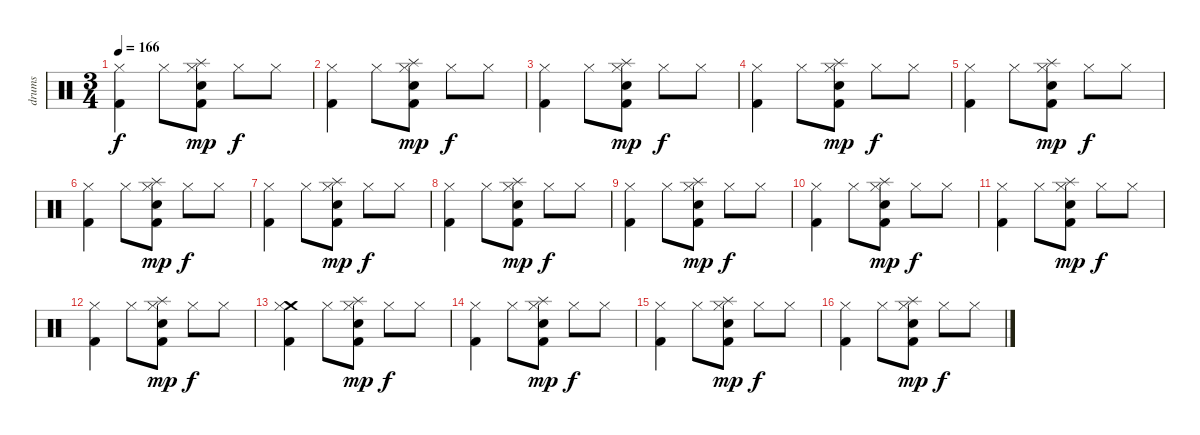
\track ("drums" "drums") {instrument percussion}
\staff {score}
\articulation defaults
\ts (3 4)
\tempo 166
\clef neutral
\ks c
("Hi-Hat (closed)" "Kick (hit) 2").4{dy f} "Hi-Hat (closed)".8 ("Splash (hit)" "Hi-Hat (closed)" "Electric Snare (hit)" "Kick (hit) 2").8{dy mp} "Hi-Hat (closed)".8{dy f} "Hi-Hat (closed)".8 |
("Hi-Hat (closed)" "Kick (hit) 2").4 "Hi-Hat (closed)".8 ("Splash (hit)" "Hi-Hat (closed)" "Electric Snare (hit)" "Kick (hit) 2").8{dy mp} "Hi-Hat (closed)".8{dy f} "Hi-Hat (closed)".8 |
("Hi-Hat (closed)" "Kick (hit) 2").4 "Hi-Hat (closed)".8 ("Splash (hit)" "Hi-Hat (closed)" "Electric Snare (hit)" "Kick (hit) 2").8{dy mp} "Hi-Hat (closed)".8{dy f} "Hi-Hat (closed)".8 |
("Hi-Hat (closed)" "Kick (hit) 2").4 "Hi-Hat (closed)".8 ("Splash (hit)" "Hi-Hat (closed)" "Electric Snare (hit)" "Kick (hit) 2").8{dy mp} "Hi-Hat (closed)".8{dy f} "Hi-Hat (closed)".8 |
("Hi-Hat (closed)" "Kick (hit) 2").4 "Hi-Hat (closed)".8 ("Splash (hit)" "Hi-Hat (closed)" "Electric Snare (hit)" "Kick (hit) 2").8{dy mp} "Hi-Hat (closed)".8{dy f} "Hi-Hat (closed)".8 |
("Hi-Hat (closed)" "Kick (hit) 2").4 "Hi-Hat (closed)".8 ("Splash (hit)" "Hi-Hat (closed)" "Electric Snare (hit)" "Kick (hit) 2").8{dy mp} "Hi-Hat (closed)".8{dy f} "Hi-Hat (closed)".8 |
("Hi-Hat (closed)" "Kick (hit) 2").4 "Hi-Hat (closed)".8 ("Splash (hit)" "Hi-Hat (closed)" "Electric Snare (hit)" "Kick (hit) 2").8{dy mp} "Hi-Hat (closed)".8{dy f} "Hi-Hat (closed)".8 |
("Hi-Hat (closed)" "Kick (hit) 2").4 "Hi-Hat (closed)".8 ("Splash (hit)" "Hi-Hat (closed)" "Electric Snare (hit)" "Kick (hit) 2").8{dy mp} "Hi-Hat (closed)".8{dy f} "Hi-Hat (closed)".8 |
("Hi-Hat (closed)" "Kick (hit) 2").4 "Hi-Hat (closed)".8 ("Splash (hit)" "Hi-Hat (closed)" "Electric Snare (hit)" "Kick (hit) 2").8{dy mp} "Hi-Hat (closed)".8{dy f} "Hi-Hat (closed)".8 |
("Hi-Hat (closed)" "Kick (hit) 2").4 "Hi-Hat (closed)".8 ("Splash (hit)" "Hi-Hat (closed)" "Electric Snare (hit)" "Kick (hit) 2").8{dy mp} "Hi-Hat (closed)".8{dy f} "Hi-Hat (closed)".8 |
("Hi-Hat (closed)" "Kick (hit) 2").4 "Hi-Hat (closed)".8 ("Splash (hit)" "Hi-Hat (closed)" "Electric Snare (hit)" "Kick (hit) 2").8{dy mp} "Hi-Hat (closed)".8{dy f} "Hi-Hat (closed)".8 |
("Hi-Hat (closed)" "Kick (hit) 2").4 "Hi-Hat (closed)".8 ("Splash (hit)" "Hi-Hat (closed)" "Electric Snare (hit)" "Kick (hit) 2").8{dy mp} "Hi-Hat (closed)".8{dy f} "Hi-Hat (closed)".8 |
("Crash medium (hit)" "Hi-Hat (closed)" "Kick (hit) 2").4 "Hi-Hat (closed)".8 ("Splash (hit)" "Hi-Hat (closed)" "Electric Snare (hit)" "Kick (hit) 2").8{dy mp} "Hi-Hat (closed)".8{dy f} "Hi-Hat (closed)".8 |
("Hi-Hat (closed)" "Kick (hit) 2").4 "Hi-Hat (closed)".8 ("Splash (hit)" "Hi-Hat (closed)" "Electric Snare (hit)" "Kick (hit) 2").8{dy mp} "Hi-Hat (closed)".8{dy f} "Hi-Hat (closed)".8 |
("Hi-Hat (closed)" "Kick (hit) 2").4 "Hi-Hat (closed)".8 ("Splash (hit)" "Hi-Hat (closed)" "Electric Snare (hit)" "Kick (hit) 2").8{dy mp} "Hi-Hat (closed)".8{dy f} "Hi-Hat (closed)".8 |
("Hi-Hat (closed)" "Kick (hit) 2").4 "Hi-Hat (closed)".8 ("Splash (hit)" "Hi-Hat (closed)" "Electric Snare (hit)" "Kick (hit) 2").8{dy mp} "Hi-Hat (closed)".8{dy f} "Hi-Hat (closed)".8
